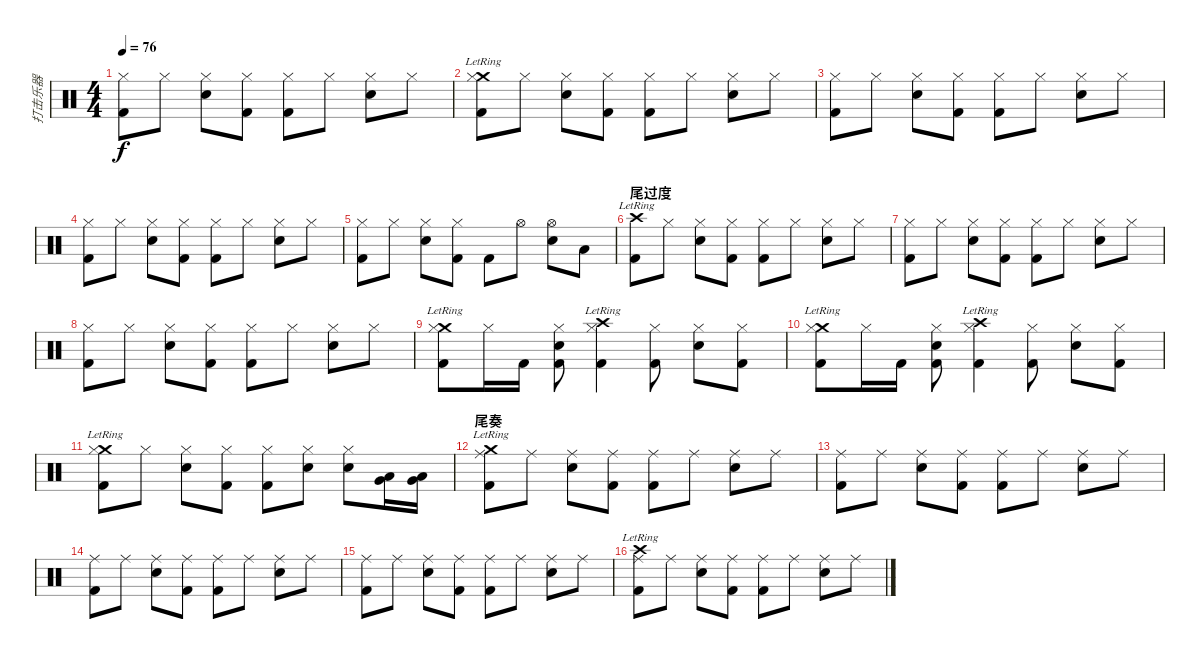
\track ("打击乐器" "打击乐器") {instrument percussion}
\staff {score}
\articulation defaults
\ts (4 4)
\tempo 76
\clef neutral
\ks c
("Hi-Hat (closed)" "Kick (hit) 2").8{dy f} "Hi-Hat (closed)".8 ("Hi-Hat (closed)" "Snare (hit) 2").8 ("Hi-Hat (closed)" "Kick (hit) 2").8 ("Hi-Hat (closed)" "Kick (hit) 2").8 "Hi-Hat (closed)".8 ("Hi-Hat (closed)" "Snare (hit) 2").8 "Hi-Hat (closed)".8 |
("Crash medium (hit)"{lr} "Hi-Hat (closed)" "Kick (hit) 2").8 "Hi-Hat (closed)".8 ("Hi-Hat (closed)" "Snare (hit) 2").8 ("Hi-Hat (closed)" "Kick (hit) 2").8 ("Hi-Hat (closed)" "Kick (hit) 2").8 "Hi-Hat (closed)".8 ("Hi-Hat (closed)" "Snare (hit) 2").8 "Hi-Hat (closed)".8 |
("Hi-Hat (closed)" "Kick (hit) 2").8 "Hi-Hat (closed)".8 ("Hi-Hat (closed)" "Snare (hit) 2").8 ("Hi-Hat (closed)" "Kick (hit) 2").8 ("Hi-Hat (closed)" "Kick (hit) 2").8 "Hi-Hat (closed)".8 ("Hi-Hat (closed)" "Snare (hit) 2").8 "Hi-Hat (closed)".8 |
("Hi-Hat (closed)" "Kick (hit) 2").8 "Hi-Hat (closed)".8 ("Hi-Hat (closed)" "Snare (hit) 2").8 ("Hi-Hat (closed)" "Kick (hit) 2").8 ("Hi-Hat (closed)" "Kick (hit) 2").8 "Hi-Hat (closed)".8 ("Hi-Hat (closed)" "Snare (hit) 2").8 "Hi-Hat (closed)".8 |
("Hi-Hat (closed)" "Kick (hit) 2").8 "Hi-Hat (closed)".8 ("Hi-Hat (closed)" "Snare (hit) 2").8 ("Hi-Hat (closed)" "Kick (hit) 2").8 "Kick (hit) 2".8 "Hi-Hat (open)".8 ("Hi-Hat (open)" "Snare (hit) 2").8 "Low Floor Tom (hit)".8 |
\section ("" "尾过度")
("Crash high (hit)"{lr} "Kick (hit) 2").8 "Hi-Hat (closed)".8 ("Hi-Hat (closed)" "Snare (hit) 2").8 ("Hi-Hat (closed)" "Kick (hit) 2").8 ("Hi-Hat (closed)" "Kick (hit) 2").8 "Hi-Hat (closed)".8 ("Hi-Hat (closed)" "Snare (hit) 2").8 "Hi-Hat (closed)".8 |
("Hi-Hat (closed)" "Kick (hit) 2").8 "Hi-Hat (closed)".8 ("Hi-Hat (closed)" "Snare (hit) 2").8 ("Hi-Hat (closed)" "Kick (hit) 2").8 ("Hi-Hat (closed)" "Kick (hit) 2").8 "Hi-Hat (closed)".8 ("Hi-Hat (closed)" "Snare (hit) 2").8 "Hi-Hat (closed)".8 |
("Hi-Hat (closed)" "Kick (hit) 2").8 "Hi-Hat (closed)".8 ("Hi-Hat (closed)" "Snare (hit) 2").8 ("Hi-Hat (closed)" "Kick (hit) 2").8 ("Hi-Hat (closed)" "Kick (hit) 2").8 "Hi-Hat (closed)".8 ("Hi-Hat (closed)" "Snare (hit) 2").8 "Hi-Hat (closed)".8 |
("Crash medium (hit)"{lr} "Hi-Hat (closed)" "Kick (hit) 2").8 "Hi-Hat (closed)".16 "Kick (hit) 2".16 ("Hi-Hat (closed)" "Kick (hit) 2" "Snare (hit) 2").8 ("Crash high (hit)"{lr} "Hi-Hat (closed)" "Kick (hit) 2").4 ("Hi-Hat (closed)" "Kick (hit) 2").8 ("Hi-Hat (closed)" "Snare (hit) 2").8 ("Hi-Hat (closed)" "Kick (hit) 2").8 |
("Crash medium (hit)"{lr} "Hi-Hat (closed)" "Kick (hit) 2").8 "Hi-Hat (closed)".16 "Kick (hit) 2".16 ("Hi-Hat (closed)" "Kick (hit) 2" "Snare (hit) 2").8 ("Crash high (hit)"{lr} "Hi-Hat (closed)" "Kick (hit) 2").4 ("Hi-Hat (closed)" "Kick (hit) 2").8 ("Hi-Hat (closed)" "Snare (hit) 2").8 ("Hi-Hat (closed)" "Kick (hit) 2").8 |
("Crash medium (hit)"{lr} "Hi-Hat (closed)" "Kick (hit) 2").8 "Hi-Hat (closed)".8 ("Hi-Hat (closed)" "Snare (hit) 2").8 ("Hi-Hat (closed)" "Kick (hit) 2").8 ("Hi-Hat (closed)" "Kick (hit) 2").8 ("Hi-Hat (closed)" "Snare (hit) 2").8 ("Hi-Hat (closed)" "Snare (hit) 2").8 ("Very Low Tom (hit)" "Low Tom (hit)").16 ("Low Floor Tom (hit)" "Very Low Tom (hit)").16 |
\section ("" "尾奏")
("Crash medium (hit)"{lr} "Ride (middle)" "Kick (hit) 2").8 "Ride (middle)".8 ("Ride (middle)" "Snare (hit) 2").8 ("Ride (middle)" "Kick (hit) 2").8 ("Ride (middle)" "Kick (hit) 2").8 "Ride (middle)".8 ("Ride (middle)" "Snare (hit) 2").8 "Ride (middle)".8 |
("Ride (middle)" "Kick (hit) 2").8 "Ride (middle)".8 ("Ride (middle)" "Snare (hit) 2").8 ("Ride (middle)" "Kick (hit) 2").8 ("Ride (middle)" "Kick (hit) 2").8 "Ride (middle)".8 ("Ride (middle)" "Snare (hit) 2").8 "Ride (middle)".8 |
("Ride (middle)" "Kick (hit) 2").8 "Ride (middle)".8 ("Ride (middle)" "Snare (hit) 2").8 ("Ride (middle)" "Kick (hit) 2").8 ("Ride (middle)" "Kick (hit) 2").8 "Ride (middle)".8 ("Ride (middle)" "Snare (hit) 2").8 "Ride (middle)".8 |
("Ride (middle)" "Kick (hit) 2").8 "Ride (middle)".8 ("Ride (middle)" "Snare (hit) 2").8 ("Ride (middle)" "Kick (hit) 2").8 ("Ride (middle)" "Kick (hit) 2").8 "Ride (middle)".8 ("Ride (middle)" "Snare (hit) 2").8 "Ride (middle)".8 |
("Crash high (hit)"{lr} "Ride (middle)" "Kick (hit) 2").8 "Ride (middle)".8 ("Ride (middle)" "Snare (hit) 2").8 ("Ride (middle)" "Kick (hit) 2").8 ("Ride (middle)" "Kick (hit) 2").8 "Ride (middle)".8 ("Ride (middle)" "Snare (hit) 2").8 "Ride (middle)".8
